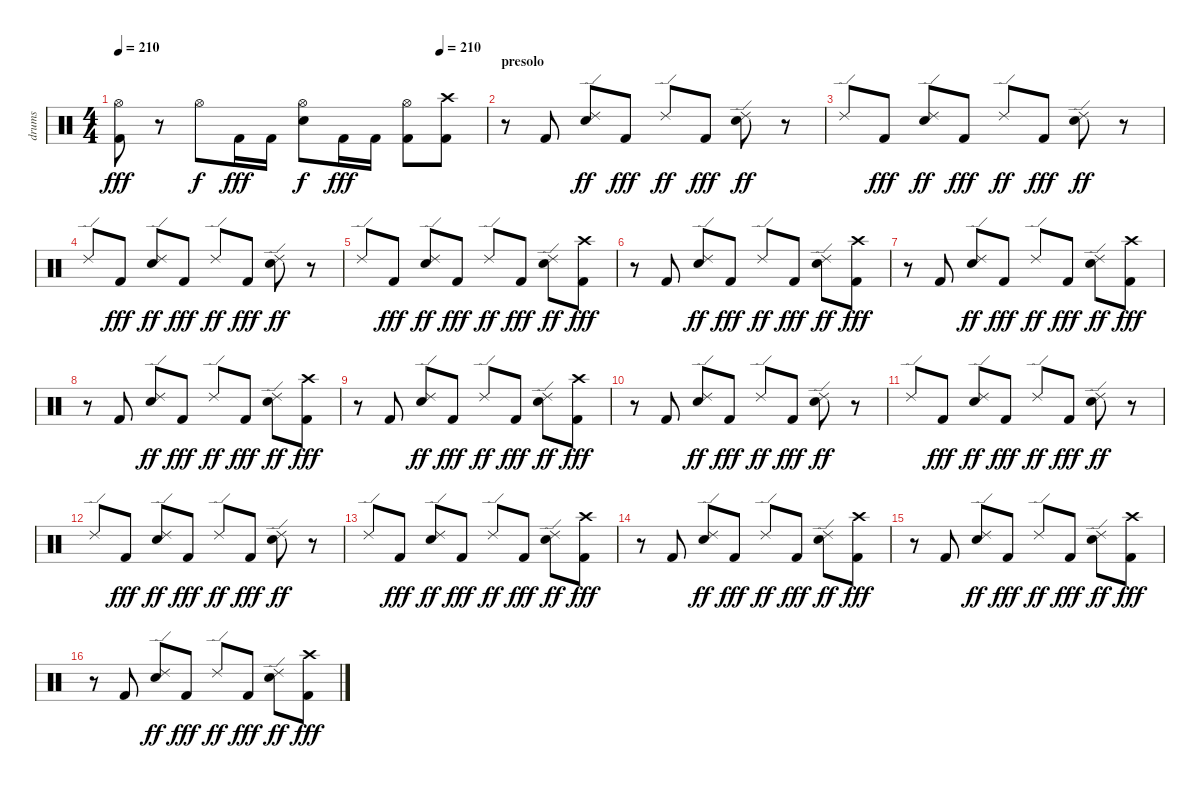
\track ("drums" "drums") {instrument percussion}
\staff {score}
\articulation defaults
\ts (4 4)
\tempo 210
\tempo (210 0.875)
\clef neutral
\ks c
("Hi-Hat (open)" "Kick (hit) 2").8{dy fff} r.8 "Hi-Hat (open)".8{dy f} "Kick (hit) 2".16{dy fff} "Kick (hit) 2".16 ("Hi-Hat (open)" "Snare (hit) 2").8{dy f} "Kick (hit) 2".16{dy fff} "Kick (hit) 2".16 ("Hi-Hat (open)" "Kick (hit) 2").8 ("Crash high (hit)" "Kick (hit) 2").8 |
\section ("" "presolo")
r.8 "Kick (hit) 2".8 ("Ride (edge) 2" "Snare (hit) 2").8{dy ff} "Kick (hit) 2".8{dy fff} "Ride (edge) 2".8{dy ff} "Kick (hit) 2".8{dy fff} ("Ride (edge) 2" "Snare (hit) 2").8{dy ff} r.8 |
"Ride (edge) 2".8 "Kick (hit) 2".8{dy fff} ("Ride (edge) 2" "Snare (hit) 2").8{dy ff} "Kick (hit) 2".8{dy fff} "Ride (edge) 2".8{dy ff} "Kick (hit) 2".8{dy fff} ("Ride (edge) 2" "Snare (hit) 2").8{dy ff} r.8 |
"Ride (edge) 2".8 "Kick (hit) 2".8{dy fff} ("Ride (edge) 2" "Snare (hit) 2").8{dy ff} "Kick (hit) 2".8{dy fff} "Ride (edge) 2".8{dy ff} "Kick (hit) 2".8{dy fff} ("Ride (edge) 2" "Snare (hit) 2").8{dy ff} r.8 |
"Ride (edge) 2".8 "Kick (hit) 2".8{dy fff} ("Ride (edge) 2" "Snare (hit) 2").8{dy ff} "Kick (hit) 2".8{dy fff} "Ride (edge) 2".8{dy ff} "Kick (hit) 2".8{dy fff} ("Ride (edge) 2" "Snare (hit) 2").8{dy ff} ("Crash high (hit)" "Kick (hit) 2").8{dy fff} |
r.8 "Kick (hit) 2".8 ("Ride (edge) 2" "Snare (hit) 2").8{dy ff} "Kick (hit) 2".8{dy fff} "Ride (edge) 2".8{dy ff} "Kick (hit) 2".8{dy fff} ("Ride (edge) 2" "Snare (hit) 2").8{dy ff} ("Crash high (hit)" "Kick (hit) 2").8{dy fff} |
r.8 "Kick (hit) 2".8 ("Ride (edge) 2" "Snare (hit) 2").8{dy ff} "Kick (hit) 2".8{dy fff} "Ride (edge) 2".8{dy ff} "Kick (hit) 2".8{dy fff} ("Ride (edge) 2" "Snare (hit) 2").8{dy ff} ("Crash high (hit)" "Kick (hit) 2").8{dy fff} |
r.8 "Kick (hit) 2".8 ("Ride (edge) 2" "Snare (hit) 2").8{dy ff} "Kick (hit) 2".8{dy fff} "Ride (edge) 2".8{dy ff} "Kick (hit) 2".8{dy fff} ("Ride (edge) 2" "Snare (hit) 2").8{dy ff} ("Crash high (hit)" "Kick (hit) 2").8{dy fff} |
r.8 "Kick (hit) 2".8 ("Ride (edge) 2" "Snare (hit) 2").8{dy ff} "Kick (hit) 2".8{dy fff} "Ride (edge) 2".8{dy ff} "Kick (hit) 2".8{dy fff} ("Ride (edge) 2" "Snare (hit) 2").8{dy ff} ("Crash high (hit)" "Kick (hit) 2").8{dy fff} |
r.8 "Kick (hit) 2".8 ("Ride (edge) 2" "Snare (hit) 2").8{dy ff} "Kick (hit) 2".8{dy fff} "Ride (edge) 2".8{dy ff} "Kick (hit) 2".8{dy fff} ("Ride (edge) 2" "Snare (hit) 2").8{dy ff} r.8 |
"Ride (edge) 2".8 "Kick (hit) 2".8{dy fff} ("Ride (edge) 2" "Snare (hit) 2").8{dy ff} "Kick (hit) 2".8{dy fff} "Ride (edge) 2".8{dy ff} "Kick (hit) 2".8{dy fff} ("Ride (edge) 2" "Snare (hit) 2").8{dy ff} r.8 |
"Ride (edge) 2".8 "Kick (hit) 2".8{dy fff} ("Ride (edge) 2" "Snare (hit) 2").8{dy ff} "Kick (hit) 2".8{dy fff} "Ride (edge) 2".8{dy ff} "Kick (hit) 2".8{dy fff} ("Ride (edge) 2" "Snare (hit) 2").8{dy ff} r.8 |
"Ride (edge) 2".8 "Kick (hit) 2".8{dy fff} ("Ride (edge) 2" "Snare (hit) 2").8{dy ff} "Kick (hit) 2".8{dy fff} "Ride (edge) 2".8{dy ff} "Kick (hit) 2".8{dy fff} ("Ride (edge) 2" "Snare (hit) 2").8{dy ff} ("Crash high (hit)" "Kick (hit) 2").8{dy fff} |
r.8 "Kick (hit) 2".8 ("Ride (edge) 2" "Snare (hit) 2").8{dy ff} "Kick (hit) 2".8{dy fff} "Ride (edge) 2".8{dy ff} "Kick (hit) 2".8{dy fff} ("Ride (edge) 2" "Snare (hit) 2").8{dy ff} ("Crash high (hit)" "Kick (hit) 2").8{dy fff} |
r.8 "Kick (hit) 2".8 ("Ride (edge) 2" "Snare (hit) 2").8{dy ff} "Kick (hit) 2".8{dy fff} "Ride (edge) 2".8{dy ff} "Kick (hit) 2".8{dy fff} ("Ride (edge) 2" "Snare (hit) 2").8{dy ff} ("Crash high (hit)" "Kick (hit) 2").8{dy fff} |
r.8 "Kick (hit) 2".8 ("Ride (edge) 2" "Snare (hit) 2").8{dy ff} "Kick (hit) 2".8{dy fff} "Ride (edge) 2".8{dy ff} "Kick (hit) 2".8{dy fff} ("Ride (edge) 2" "Snare (hit) 2").8{dy ff} ("Crash high (hit)" "Kick (hit) 2").8{dy fff}
